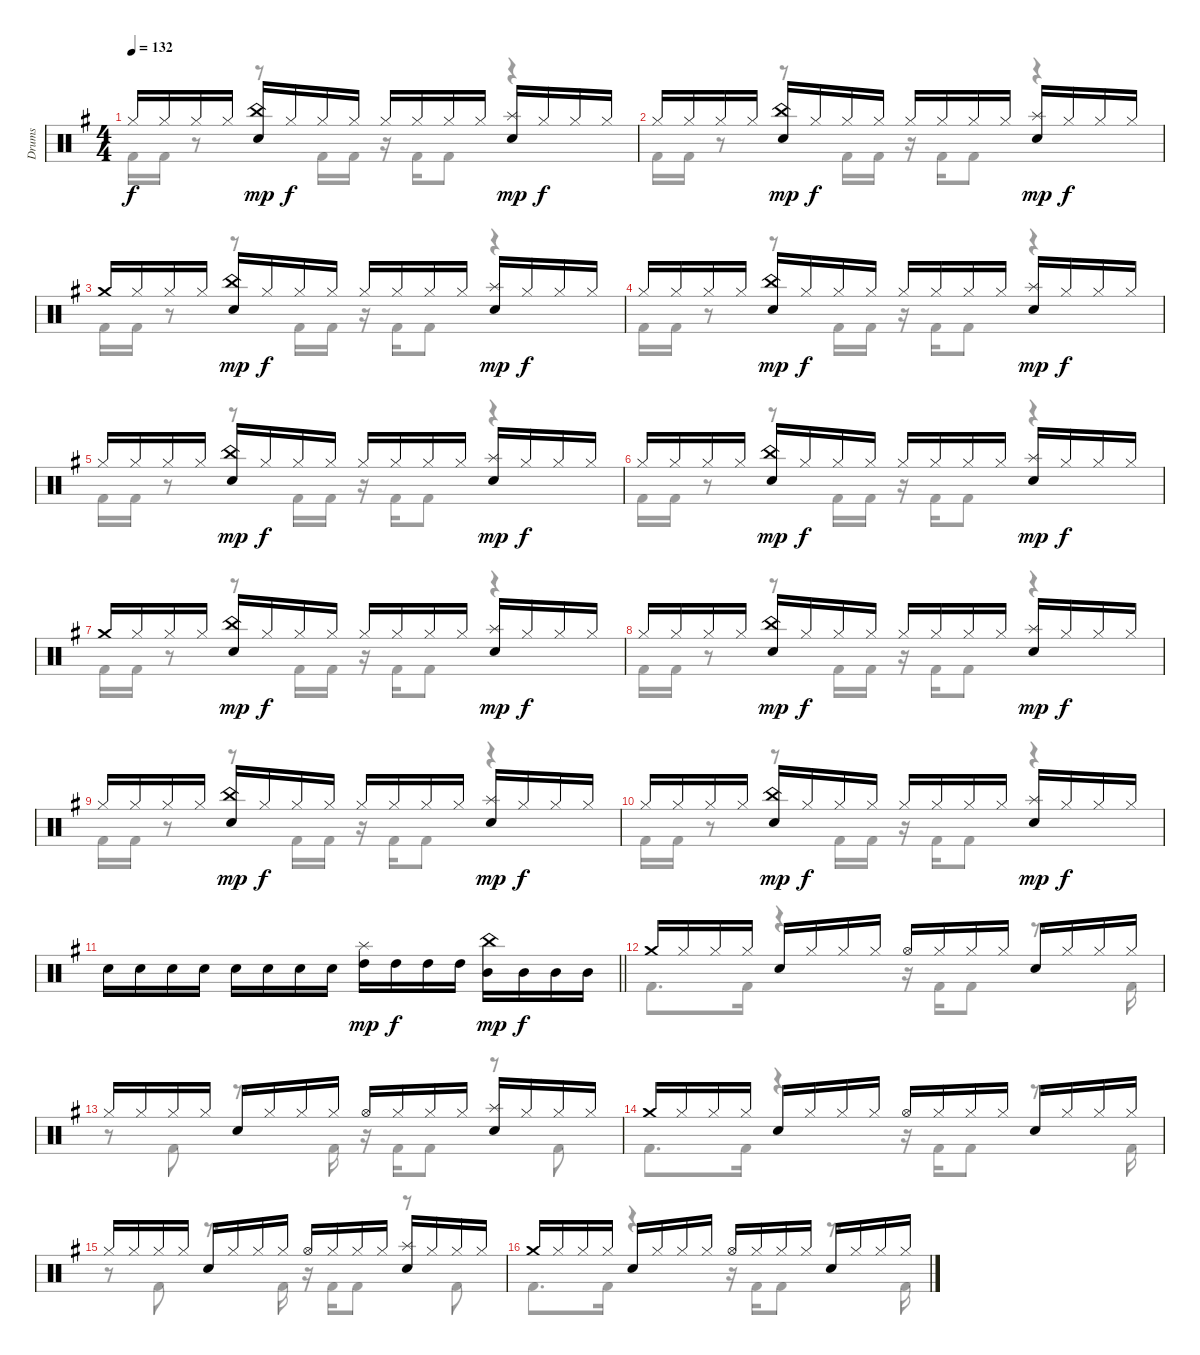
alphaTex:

\track ("Drums" "Drums") {instrument percussion}
\staff {score}
\articulation defaults
\voice
\ts (4 4)
\tempo 132
\clef neutral
\ks g "Hi-Hat (closed)".16{dy f} "Hi-Hat (closed)".16 "Hi-Hat (closed)".16 "Hi-Hat (closed)".16
("China (hit)" "Electric Snare (hit)").16{dy mp} "Hi-Hat (closed)".16{dy f} "Hi-Hat (closed)".16 "Hi-Hat (closed)".16 "Hi-Hat (closed)".16 "Hi-Hat (closed)".16 "Hi-Hat (closed)".16 "Hi-Hat (closed)".16 ("Splash (hit)" "Electric Snare (hit)").16{dy mp} "Hi-Hat (closed)".16{dy f} "Hi-Hat (closed)".16 "Hi-Hat (closed)".16 |
"Hi-Hat (closed)".16 "Hi-Hat (closed)".16 "Hi-Hat (closed)".16 "Hi-Hat (closed)".16 ("China (hit)" "Electric Snare (hit)").16{dy mp} "Hi-Hat (closed)".16{dy f} "Hi-Hat (closed)".16 "Hi-Hat (closed)".16 "Hi-Hat (closed)".16 "Hi-Hat (closed)".16 "Hi-Hat (closed)".16 "Hi-Hat (closed)".16 ("Splash (hit)" "Electric Snare (hit)").16{dy mp} "Hi-Hat (closed)".16{dy f} "Hi-Hat (closed)".16 "Hi-Hat (closed)".16 |
"Crash medium (hit)".16 "Hi-Hat (closed)".16 "Hi-Hat (closed)".16 "Hi-Hat (closed)".16 ("China (hit)" "Electric Snare (hit)").16{dy mp} "Hi-Hat (closed)".16{dy f} "Hi-Hat (closed)".16 "Hi-Hat (closed)".16 "Hi-Hat (closed)".16 "Hi-Hat (closed)".16 "Hi-Hat (closed)".16 "Hi-Hat (closed)".16 ("Splash (hit)" "Electric Snare (hit)").16{dy mp} "Hi-Hat (closed)".16{dy f} "Hi-Hat (closed)".16 "Hi-Hat (closed)".16 |
"Hi-Hat (closed)".16 "Hi-Hat (closed)".16 "Hi-Hat (closed)".16 "Hi-Hat (closed)".16 ("China (hit)" "Electric Snare (hit)").16{dy mp} "Hi-Hat (closed)".16{dy f} "Hi-Hat (closed)".16 "Hi-Hat (closed)".16 "Hi-Hat (closed)".16 "Hi-Hat (closed)".16 "Hi-Hat (closed)".16 "Hi-Hat (closed)".16 ("Splash (hit)" "Electric Snare (hit)").16{dy mp} "Hi-Hat (closed)".16{dy f} "Hi-Hat (closed)".16 "Hi-Hat (closed)".16 |
"Hi-Hat (closed)".16 "Hi-Hat (closed)".16 "Hi-Hat (closed)".16 "Hi-Hat (closed)".16 ("China (hit)" "Electric Snare (hit)").16{dy mp} "Hi-Hat (closed)".16{dy f} "Hi-Hat (closed)".16 "Hi-Hat (closed)".16 "Hi-Hat (closed)".16 "Hi-Hat (closed)".16 "Hi-Hat (closed)".16 "Hi-Hat (closed)".16 ("Splash (hit)" "Electric Snare (hit)").16{dy mp} "Hi-Hat (closed)".16{dy f} "Hi-Hat (closed)".16 "Hi-Hat (closed)".16 |
"Hi-Hat (closed)".16 "Hi-Hat (closed)".16 "Hi-Hat (closed)".16 "Hi-Hat (closed)".16 ("China (hit)" "Electric Snare (hit)").16{dy mp} "Hi-Hat (closed)".16{dy f} "Hi-Hat (closed)".16 "Hi-Hat (closed)".16 "Hi-Hat (closed)".16 "Hi-Hat (closed)".16 "Hi-Hat (closed)".16 "Hi-Hat (closed)".16 ("Splash (hit)" "Electric Snare (hit)").16{dy mp} "Hi-Hat (closed)".16{dy f} "Hi-Hat (closed)".16 "Hi-Hat (closed)".16 |
"Crash medium (hit)".16 "Hi-Hat (closed)".16 "Hi-Hat (closed)".16 "Hi-Hat (closed)".16 ("China (hit)" "Electric Snare (hit)").16{dy mp} "Hi-Hat (closed)".16{dy f} "Hi-Hat (closed)".16 "Hi-Hat (closed)".16 "Hi-Hat (closed)".16 "Hi-Hat (closed)".16 "Hi-Hat (closed)".16 "Hi-Hat (closed)".16 ("Splash (hit)" "Electric Snare (hit)").16{dy mp} "Hi-Hat (closed)".16{dy f} "Hi-Hat (closed)".16 "Hi-Hat (closed)".16 |
"Hi-Hat (closed)".16 "Hi-Hat (closed)".16 "Hi-Hat (closed)".16 "Hi-Hat (closed)".16 ("China (hit)" "Electric Snare (hit)").16{dy mp} "Hi-Hat (closed)".16{dy f} "Hi-Hat (closed)".16 "Hi-Hat (closed)".16 "Hi-Hat (closed)".16 "Hi-Hat (closed)".16 "Hi-Hat (closed)".16 "Hi-Hat (closed)".16 ("Splash (hit)" "Electric Snare (hit)").16{dy mp} "Hi-Hat (closed)".16{dy f} "Hi-Hat (closed)".16 "Hi-Hat (closed)".16 |
"Hi-Hat (closed)".16 "Hi-Hat (closed)".16 "Hi-Hat (closed)".16 "Hi-Hat (closed)".16 ("China (hit)" "Electric Snare (hit)").16{dy mp} "Hi-Hat (closed)".16{dy f} "Hi-Hat (closed)".16 "Hi-Hat (closed)".16 "Hi-Hat (closed)".16 "Hi-Hat (closed)".16 "Hi-Hat (closed)".16 "Hi-Hat (closed)".16 ("Splash (hit)" "Electric Snare (hit)").16{dy mp} "Hi-Hat (closed)".16{dy f} "Hi-Hat (closed)".16 "Hi-Hat (closed)".16 |
"Hi-Hat (closed)".16 "Hi-Hat (closed)".16 "Hi-Hat (closed)".16 "Hi-Hat (closed)".16 ("China (hit)" "Electric Snare (hit)").16{dy mp} "Hi-Hat (closed)".16{dy f} "Hi-Hat (closed)".16 "Hi-Hat (closed)".16 "Hi-Hat (closed)".16 "Hi-Hat (closed)".16 "Hi-Hat (closed)".16 "Hi-Hat (closed)".16 ("Splash (hit)" "Electric Snare (hit)").16{dy mp} "Hi-Hat (closed)".16{dy f} "Hi-Hat (closed)".16 "Hi-Hat (closed)".16 |
\barLineRight lightlight "Electric Snare (hit)".16 "Electric Snare (hit)".16 "Electric Snare (hit)".16 "Electric Snare (hit)".16 "Electric Snare (hit)".16 "Electric Snare (hit)".16 "Electric Snare (hit)".16 "Electric Snare (hit)".16
("Splash (hit)" "High Tom (hit)").16{dy mp} "High Tom (hit)".16{dy f} "High Tom (hit)".16 "High Tom (hit)".16 ("China (hit)" "Mid Tom (hit)").16{dy mp} "Mid Tom (hit)".16{dy f} "Mid Tom (hit)".16 "Mid Tom (hit)".16 |
"Crash medium (hit)".16 "Hi-Hat (closed)".16 "Hi-Hat (closed)".16 "Hi-Hat (closed)".16 "Electric Snare (hit)".16 "Hi-Hat (closed)".16 "Hi-Hat (closed)".16 "Hi-Hat (closed)".16 "Hi-Hat (open)".16 "Hi-Hat (closed)".16 "Hi-Hat (closed)".16 "Hi-Hat (closed)".16 "Electric Snare (hit)".16 "Hi-Hat (closed)".16 "Hi-Hat (closed)".16 "Hi-Hat (closed)".16 |
"Hi-Hat (closed)".16 "Hi-Hat (closed)".16 "Hi-Hat (closed)".16 "Hi-Hat (closed)".16 "Electric Snare (hit)".16 "Hi-Hat (closed)".16 "Hi-Hat (closed)".16 "Hi-Hat (closed)".16 "Hi-Hat (open)".16 "Hi-Hat (closed)".16 "Hi-Hat (closed)".16 "Hi-Hat (closed)".16 ("Splash (hit)" "Electric Snare (hit)").16 "Hi-Hat (closed)".16 "Hi-Hat (closed)".16 "Hi-Hat (closed)".16 |
"Crash medium (hit)".16 "Hi-Hat (closed)".16 "Hi-Hat (closed)".16 "Hi-Hat (closed)".16 "Electric Snare (hit)".16 "Hi-Hat (closed)".16 "Hi-Hat (closed)".16 "Hi-Hat (closed)".16 "Hi-Hat (open)".16 "Hi-Hat (closed)".16 "Hi-Hat (closed)".16 "Hi-Hat (closed)".16 "Electric Snare (hit)".16 "Hi-Hat (closed)".16 "Hi-Hat (closed)".16 "Hi-Hat (closed)".16 |
"Hi-Hat (closed)".16 "Hi-Hat (closed)".16 "Hi-Hat (closed)".16 "Hi-Hat (closed)".16 "Electric Snare (hit)".16 "Hi-Hat (closed)".16 "Hi-Hat (closed)".16 "Hi-Hat (closed)".16 "Hi-Hat (open)".16 "Hi-Hat (closed)".16 "Hi-Hat (closed)".16 "Hi-Hat (closed)".16 ("Splash (hit)" "Electric Snare (hit)").16 "Hi-Hat (closed)".16 "Hi-Hat (closed)".16 "Hi-Hat (closed)".16 |
"Crash medium (hit)".16 "Hi-Hat (closed)".16 "Hi-Hat (closed)".16 "Hi-Hat (closed)".16 "Electric Snare (hit)".16 "Hi-Hat (closed)".16 "Hi-Hat (closed)".16 "Hi-Hat (closed)".16 "Hi-Hat (open)".16 "Hi-Hat (closed)".16 "Hi-Hat (closed)".16 "Hi-Hat (closed)".16 "Electric Snare (hit)".16 "Hi-Hat (closed)".16 "Hi-Hat (closed)".16 "Hi-Hat (closed)".16
\voice
\clef neutral
\ottava regular
\simile none
\ks g "Kick (hit) 2".16{dy f} "Kick (hit) 2".16
r.8 r.8 "Kick (hit) 2".16 "Kick (hit) 2".16 r.16 "Kick (hit) 2".16 "Kick (hit) 2".8 r.4 |
"Kick (hit) 2".16 "Kick (hit) 2".16 r.8 r.8 "Kick (hit) 2".16 "Kick (hit) 2".16 r.16 "Kick (hit) 2".16 "Kick (hit) 2".8 r.4 |
"Kick (hit) 2".16 "Kick (hit) 2".16 r.8 r.8 "Kick (hit) 2".16 "Kick (hit) 2".16 r.16 "Kick (hit) 2".16 "Kick (hit) 2".8 r.4 |
"Kick (hit) 2".16 "Kick (hit) 2".16 r.8 r.8 "Kick (hit) 2".16 "Kick (hit) 2".16 r.16 "Kick (hit) 2".16 "Kick (hit) 2".8 r.4 |
"Kick (hit) 2".16 "Kick (hit) 2".16 r.8 r.8 "Kick (hit) 2".16 "Kick (hit) 2".16 r.16 "Kick (hit) 2".16 "Kick (hit) 2".8 r.4 |
"Kick (hit) 2".16 "Kick (hit) 2".16 r.8 r.8 "Kick (hit) 2".16 "Kick (hit) 2".16 r.16 "Kick (hit) 2".16 "Kick (hit) 2".8 r.4 |
"Kick (hit) 2".16 "Kick (hit) 2".16 r.8 r.8 "Kick (hit) 2".16 "Kick (hit) 2".16 r.16 "Kick (hit) 2".16 "Kick (hit) 2".8 r.4 |
"Kick (hit) 2".16 "Kick (hit) 2".16 r.8 r.8 "Kick (hit) 2".16 "Kick (hit) 2".16 r.16 "Kick (hit) 2".16 "Kick (hit) 2".8 r.4 |
"Kick (hit) 2".16 "Kick (hit) 2".16 r.8 r.8 "Kick (hit) 2".16 "Kick (hit) 2".16 r.16 "Kick (hit) 2".16 "Kick (hit) 2".8 r.4 |
"Kick (hit) 2".16 "Kick (hit) 2".16 r.8 r.8 "Kick (hit) 2".16 "Kick (hit) 2".16 r.16 "Kick (hit) 2".16 "Kick (hit) 2".8 r.4 |
\barLineRight lightlight
|
"Kick (hit) 2".8{d} "Kick (hit) 2".16 r.4 r.16 "Kick (hit) 2".16 "Kick (hit) 2".8 r.8{d} "Kick (hit) 2".16 |
r.8 "Kick (hit) 2".8 r.8{d} "Kick (hit) 2".16 r.16 "Kick (hit) 2".16 "Kick (hit) 2".8 r.8 "Kick (hit) 2".8 |
"Kick (hit) 2".8{d} "Kick (hit) 2".16 r.4 r.16 "Kick (hit) 2".16 "Kick (hit) 2".8 r.8{d} "Kick (hit) 2".16 |
r.8 "Kick (hit) 2".8 r.8{d} "Kick (hit) 2".16 r.16 "Kick (hit) 2".16 "Kick (hit) 2".8 r.8 "Kick (hit) 2".8 |
"Kick (hit) 2".8{d} "Kick (hit) 2".16 r.4 r.16 "Kick (hit) 2".16 "Kick (hit) 2".8 r.8{d} "Kick (hit) 2".16
